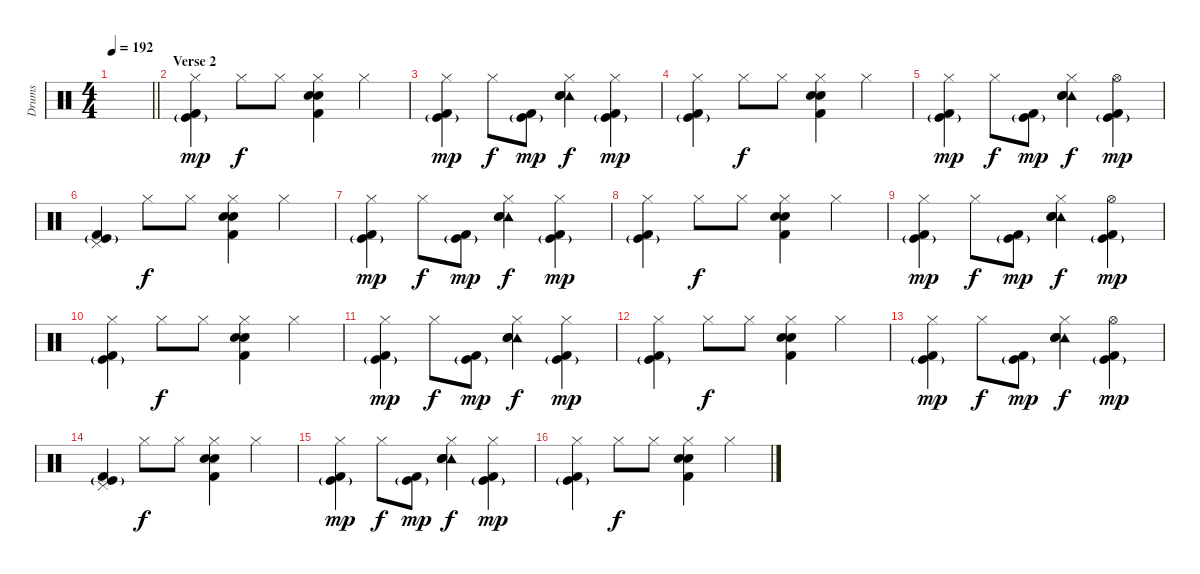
\track ("Drums" "Drums") {instrument percussion}
\staff {score}
\articulation defaults
\ts (4 4)
\tempo 192
\clef neutral
\barLineRight lightlight
\ks c
|
\section ("" "Verse 2")
("Hi-Hat (closed)" "Kick (hit)"{g} "Kick (hit) 2").4{dy mp} "Hi-Hat (closed)".8{dy f} "Hi-Hat (closed)".8 ("Hi-Hat (closed)" "Electric Snare (hit)" "Hand Clap (hit)" "Kick (hit) 2").4 "Hi-Hat (closed)".4 |
("Hi-Hat (closed)" "Kick (hit)"{g} "Kick (hit) 2").4{dy mp} "Hi-Hat (closed)".8{dy f} ("Kick (hit)"{g} "Kick (hit) 2").8{dy mp} ("Hi-Hat (closed)" "Tambourine (hit)" "Electric Snare (hit)" "Hand Clap (hit)").4{dy f} ("Hi-Hat (closed)" "Kick (hit)"{g} "Kick (hit) 2").4{dy mp} |
("Hi-Hat (closed)" "Kick (hit)"{g} "Kick (hit) 2").4 "Hi-Hat (closed)".8{dy f} "Hi-Hat (closed)".8 ("Hi-Hat (closed)" "Electric Snare (hit)" "Hand Clap (hit)" "Kick (hit) 2").4 "Hi-Hat (closed)".4 |
("Hi-Hat (closed)" "Kick (hit)"{g} "Kick (hit) 2").4{dy mp} "Hi-Hat (closed)".8{dy f} ("Kick (hit)"{g} "Kick (hit) 2").8{dy mp} ("Hi-Hat (closed)" "Tambourine (hit)" "Electric Snare (hit)" "Hand Clap (hit)").4{dy f} ("Hi-Hat (open)" "Kick (hit)"{g} "Kick (hit) 2").4{dy mp} |
("Pedal Hi-Hat (hit)" "Kick (hit)"{g} "Kick (hit) 2").4 "Hi-Hat (closed)".8{dy f} "Hi-Hat (closed)".8 ("Hi-Hat (closed)" "Electric Snare (hit)" "Hand Clap (hit)" "Kick (hit) 2").4 "Hi-Hat (closed)".4 |
("Hi-Hat (closed)" "Kick (hit)"{g} "Kick (hit) 2").4{dy mp} "Hi-Hat (closed)".8{dy f} ("Kick (hit)"{g} "Kick (hit) 2").8{dy mp} ("Hi-Hat (closed)" "Tambourine (hit)" "Electric Snare (hit)" "Hand Clap (hit)").4{dy f} ("Hi-Hat (closed)" "Kick (hit)"{g} "Kick (hit) 2").4{dy mp} |
("Hi-Hat (closed)" "Kick (hit)"{g} "Kick (hit) 2").4 "Hi-Hat (closed)".8{dy f} "Hi-Hat (closed)".8 ("Hi-Hat (closed)" "Electric Snare (hit)" "Hand Clap (hit)" "Kick (hit) 2").4 "Hi-Hat (closed)".4 |
("Hi-Hat (closed)" "Kick (hit)"{g} "Kick (hit) 2").4{dy mp} "Hi-Hat (closed)".8{dy f} ("Kick (hit)"{g} "Kick (hit) 2").8{dy mp} ("Hi-Hat (closed)" "Tambourine (hit)" "Electric Snare (hit)" "Hand Clap (hit)").4{dy f} ("Hi-Hat (open)" "Kick (hit)"{g} "Kick (hit) 2").4{dy mp} |
("Hi-Hat (closed)" "Kick (hit)"{g} "Kick (hit) 2").4 "Hi-Hat (closed)".8{dy f} "Hi-Hat (closed)".8 ("Hi-Hat (closed)" "Electric Snare (hit)" "Hand Clap (hit)" "Kick (hit) 2").4 "Hi-Hat (closed)".4 |
("Hi-Hat (closed)" "Kick (hit)"{g} "Kick (hit) 2").4{dy mp} "Hi-Hat (closed)".8{dy f} ("Kick (hit)"{g} "Kick (hit) 2").8{dy mp} ("Hi-Hat (closed)" "Tambourine (hit)" "Electric Snare (hit)" "Hand Clap (hit)").4{dy f} ("Hi-Hat (closed)" "Kick (hit)"{g} "Kick (hit) 2").4{dy mp} |
("Hi-Hat (closed)" "Kick (hit)"{g} "Kick (hit) 2").4 "Hi-Hat (closed)".8{dy f} "Hi-Hat (closed)".8 ("Hi-Hat (closed)" "Electric Snare (hit)" "Hand Clap (hit)" "Kick (hit) 2").4 "Hi-Hat (closed)".4 |
("Hi-Hat (closed)" "Kick (hit)"{g} "Kick (hit) 2").4{dy mp} "Hi-Hat (closed)".8{dy f} ("Kick (hit)"{g} "Kick (hit) 2").8{dy mp} ("Hi-Hat (closed)" "Tambourine (hit)" "Electric Snare (hit)" "Hand Clap (hit)").4{dy f} ("Hi-Hat (open)" "Kick (hit)"{g} "Kick (hit) 2").4{dy mp} |
("Pedal Hi-Hat (hit)" "Kick (hit)"{g} "Kick (hit) 2").4 "Hi-Hat (closed)".8{dy f} "Hi-Hat (closed)".8 ("Hi-Hat (closed)" "Electric Snare (hit)" "Hand Clap (hit)" "Kick (hit) 2").4 "Hi-Hat (closed)".4 |
("Hi-Hat (closed)" "Kick (hit)"{g} "Kick (hit) 2").4{dy mp} "Hi-Hat (closed)".8{dy f} ("Kick (hit)"{g} "Kick (hit) 2").8{dy mp} ("Hi-Hat (closed)" "Tambourine (hit)" "Electric Snare (hit)" "Hand Clap (hit)").4{dy f} ("Hi-Hat (closed)" "Kick (hit)"{g} "Kick (hit) 2").4{dy mp} |
("Hi-Hat (closed)" "Kick (hit)"{g} "Kick (hit) 2").4 "Hi-Hat (closed)".8{dy f} "Hi-Hat (closed)".8 ("Hi-Hat (closed)" "Electric Snare (hit)" "Hand Clap (hit)" "Kick (hit) 2").4 "Hi-Hat (closed)".4
